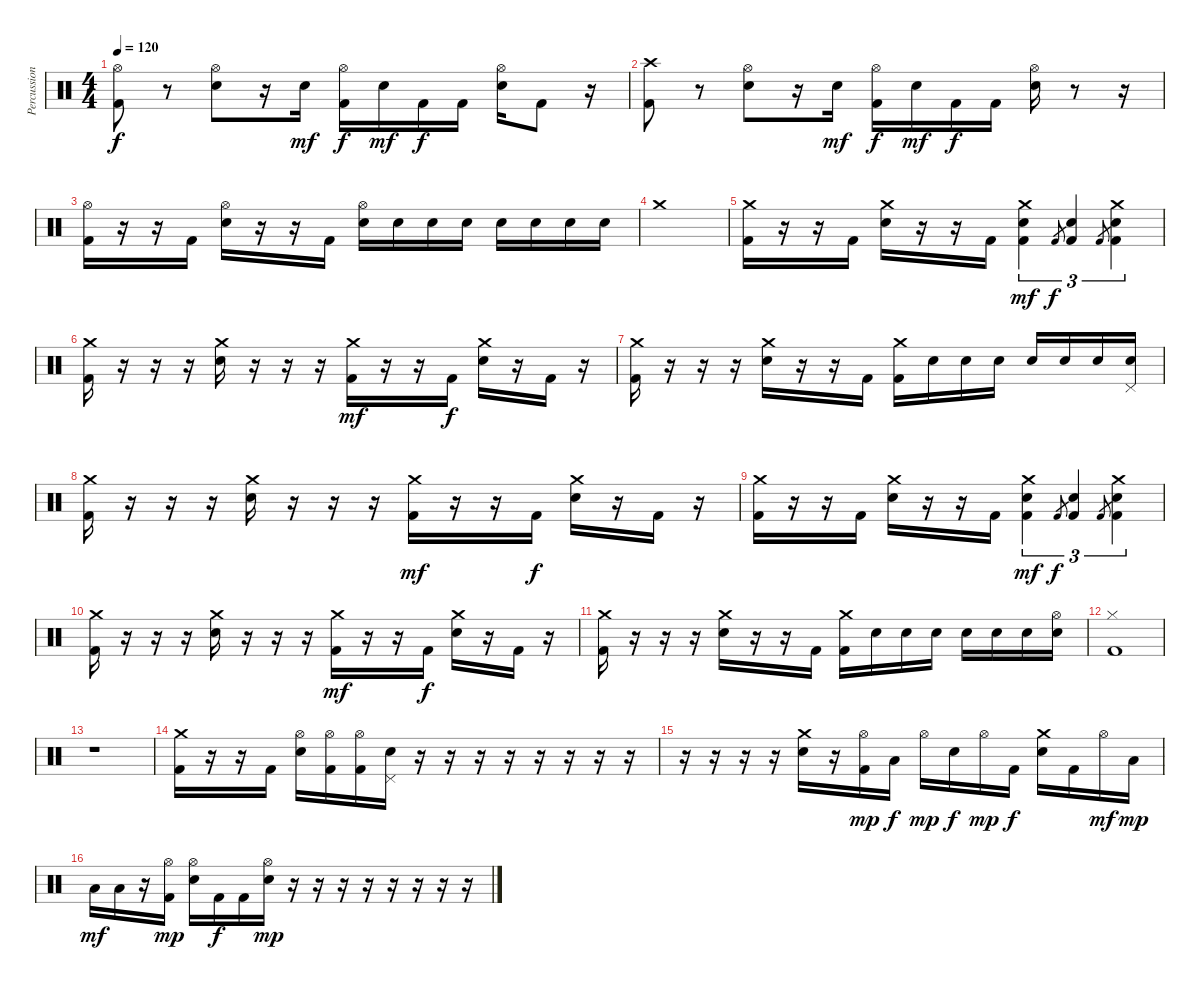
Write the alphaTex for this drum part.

\track ("Percussion" "Percussion") {instrument percussion}
\staff {score}
\articulation defaults
\ts (4 4)
\tempo 120
\clef neutral
\ks c
("Hi-Hat (open)" "Kick (hit) 2").8{dy f} r.8 ("Hi-Hat (open)" "Electric Snare (hit)").8 r.16 "Electric Snare (hit)".16{dy mf} ("Hi-Hat (open)" "Kick (hit) 2").16{dy f} "Electric Snare (hit)".16{dy mf} "Kick (hit) 2".16{dy f} "Kick (hit) 2".16 ("Hi-Hat (open)" "Electric Snare (hit)").16 "Kick (hit) 2".8 r.16 |
("Crash high (hit)" "Kick (hit) 2").8 r.8 ("Hi-Hat (open)" "Electric Snare (hit)").8 r.16 "Electric Snare (hit)".16{dy mf} ("Hi-Hat (open)" "Kick (hit) 2").16{dy f} "Electric Snare (hit)".16{dy mf} "Kick (hit) 2".16{dy f} "Kick (hit) 2".16 ("Hi-Hat (open)" "Electric Snare (hit)").16 r.8 r.16 |
("Hi-Hat (open)" "Kick (hit) 2").16 r.16 r.16 "Kick (hit) 2".16 ("Hi-Hat (open)" "Electric Snare (hit)").16 r.16 r.16 "Kick (hit) 2".16 ("Hi-Hat (open)" "Electric Snare (hit)").16 "Electric Snare (hit)".16 "Electric Snare (hit)".16 "Electric Snare (hit)".16 "Electric Snare (hit)".16 "Electric Snare (hit)".16 "Electric Snare (hit)".16 "Electric Snare (hit)".16 |
"Crash medium (hit)".1 |
("Crash medium (hit)" "Kick (hit) 2").16 r.16 r.16 "Kick (hit) 2".16 ("Crash medium (hit)" "Electric Snare (hit)").16 r.16 r.16 "Kick (hit) 2".16 ("Crash medium (hit)" "Kick (hit) 2" "Electric Snare (hit)").4{tu (3 2) dy mf} "Kick (hit) 2".8{gr dy f} ("Kick (hit) 2" "Electric Snare (hit)").4{tu (3 2)} "Kick (hit) 2".8{gr} ("Crash medium (hit)" "Kick (hit) 2" "Electric Snare (hit)").4{tu (3 2)} |
("Crash medium (hit)" "Kick (hit) 2").16 r.16 r.16 r.16 ("Crash medium (hit)" "Electric Snare (hit)").16 r.16 r.16 r.16 ("Crash medium (hit)" "Kick (hit) 2").16{dy mf} r.16 r.16 "Kick (hit) 2".16{dy f} ("Crash medium (hit)" "Electric Snare (hit)").16 r.16 "Kick (hit) 2".16 r.16 |
("Crash medium (hit)" "Kick (hit) 2").16 r.16 r.16 r.16 ("Crash medium (hit)" "Electric Snare (hit)").16 r.16 r.16 "Kick (hit) 2".16 ("Crash medium (hit)" "Kick (hit) 2").16 "Electric Snare (hit)".16 "Electric Snare (hit)".16 "Electric Snare (hit)".16 "Electric Snare (hit)".16 "Electric Snare (hit)".16 "Electric Snare (hit)".16 ("Pedal Hi-Hat (hit)" "Electric Snare (hit)").16 |
("Crash medium (hit)" "Kick (hit) 2").16 r.16 r.16 r.16 ("Crash medium (hit)" "Electric Snare (hit)").16 r.16 r.16 r.16 ("Crash medium (hit)" "Kick (hit) 2").16{dy mf} r.16 r.16 "Kick (hit) 2".16{dy f} ("Crash medium (hit)" "Electric Snare (hit)").16 r.16 "Kick (hit) 2".16 r.16 |
("Crash medium (hit)" "Kick (hit) 2").16 r.16 r.16 "Kick (hit) 2".16 ("Crash medium (hit)" "Electric Snare (hit)").16 r.16 r.16 "Kick (hit) 2".16 ("Crash medium (hit)" "Kick (hit) 2" "Electric Snare (hit)").4{tu (3 2) dy mf} "Kick (hit) 2".8{gr dy f} ("Kick (hit) 2" "Electric Snare (hit)").4{tu (3 2)} "Kick (hit) 2".8{gr} ("Crash medium (hit)" "Kick (hit) 2" "Electric Snare (hit)").4{tu (3 2)} |
("Crash medium (hit)" "Kick (hit) 2").16 r.16 r.16 r.16 ("Crash medium (hit)" "Electric Snare (hit)").16 r.16 r.16 r.16 ("Crash medium (hit)" "Kick (hit) 2").16{dy mf} r.16 r.16 "Kick (hit) 2".16{dy f} ("Crash medium (hit)" "Electric Snare (hit)").16 r.16 "Kick (hit) 2".16 r.16 |
("Crash medium (hit)" "Kick (hit) 2").16 r.16 r.16 r.16 ("Crash medium (hit)" "Electric Snare (hit)").16 r.16 r.16 "Kick (hit) 2".16 ("Crash medium (hit)" "Kick (hit) 2").16 "Electric Snare (hit)".16 "Electric Snare (hit)".16 "Electric Snare (hit)".16 "Electric Snare (hit)".16 "Electric Snare (hit)".16 "Electric Snare (hit)".16 ("Hi-Hat (open)" "Electric Snare (hit)").16 |
("Hi-Hat (closed)" "Kick (hit) 2").1 |
r.1 |
("Crash medium (hit)" "Kick (hit) 2").16 r.16 r.16 "Kick (hit) 2".16 ("Hi-Hat (open)" "Electric Snare (hit)").16 ("Hi-Hat (open)" "Kick (hit) 2").16 ("Hi-Hat (open)" "Kick (hit) 2").16 ("Pedal Hi-Hat (hit)" "Electric Snare (hit)").16 r.16 r.16 r.16 r.16 r.16 r.16 r.16 r.16 |
r.16 r.16 r.16 r.16 ("Crash medium (hit)" "Electric Snare (hit)").16 r.16 ("Hi-Hat (open)" "Kick (hit) 2").16{dy mp} "Low Tom (hit)".16{dy f} "Hi-Hat (open)".16{dy mp} "Electric Snare (hit)".16{dy f} "Hi-Hat (open)".16{dy mp} "Kick (hit) 2".16{dy f} ("Crash medium (hit)" "Electric Snare (hit)").16 "Kick (hit) 2".16 "Hi-Hat (open)".16{dy mf} "Low Floor Tom (hit)".16{dy mp} |
"Low Floor Tom (hit)".16{dy mf} "Low Floor Tom (hit)".16 r.16 ("Hi-Hat (open)" "Kick (hit) 2").16{dy mp} ("Hi-Hat (open)" "Electric Snare (hit)").16 "Kick (hit) 2".16{dy f} "Kick (hit) 2".16 ("Hi-Hat (open)" "Electric Snare (hit)").16{dy mp} r.16 r.16 r.16 r.16 r.16 r.16 r.16 r.16
